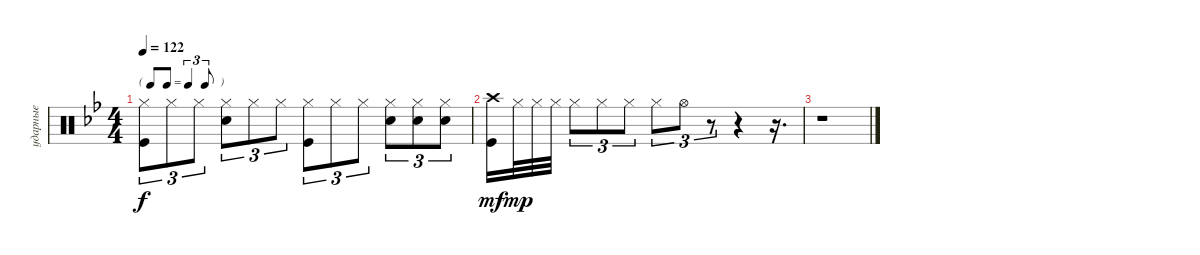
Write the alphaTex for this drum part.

\track ("ударные" "ударные") {instrument percussion}
\staff {score}
\articulation defaults
\ts (4 4)
\tf triplet8th
\tempo 122
\clef neutral
\ks gminor
("Hi-Hat (closed)" "Kick (hit)").8{tu (3 2) dy f} "Hi-Hat (closed)".8{tu (3 2)} "Hi-Hat (closed)".8{tu (3 2)} ("Hi-Hat (closed)" "Snare (hit) 2").8{tu (3 2)} "Hi-Hat (closed)".8{tu (3 2)} "Hi-Hat (closed)".8{tu (3 2)} ("Hi-Hat (closed)" "Kick (hit)").8{tu (3 2)} "Hi-Hat (closed)".8{tu (3 2)} "Hi-Hat (closed)".8{tu (3 2)} ("Hi-Hat (closed)" "Snare (hit) 2").8{tu (3 2)} ("Hi-Hat (closed)" "Snare (hit) 2").8{tu (3 2)} ("Hi-Hat (closed)" "Snare (hit) 2").8{tu (3 2)} |
("Kick (hit)" "Crash high (hit)").16{dy mf} "Hi-Hat (closed)".32{dy mp} "Hi-Hat (closed)".32 "Hi-Hat (closed)".32{beam split} "Hi-Hat (closed)".8{tu (3 2) beam merge} "Hi-Hat (closed)".8{tu (3 2) beam merge} "Hi-Hat (closed)".8{tu (3 2) beam split} "Hi-Hat (closed)".8{tu (3 2)} "Hi-Hat (open)".8{tu (3 2)} r.8{tu (3 2)} r.4 r.16{d} |
r.1
